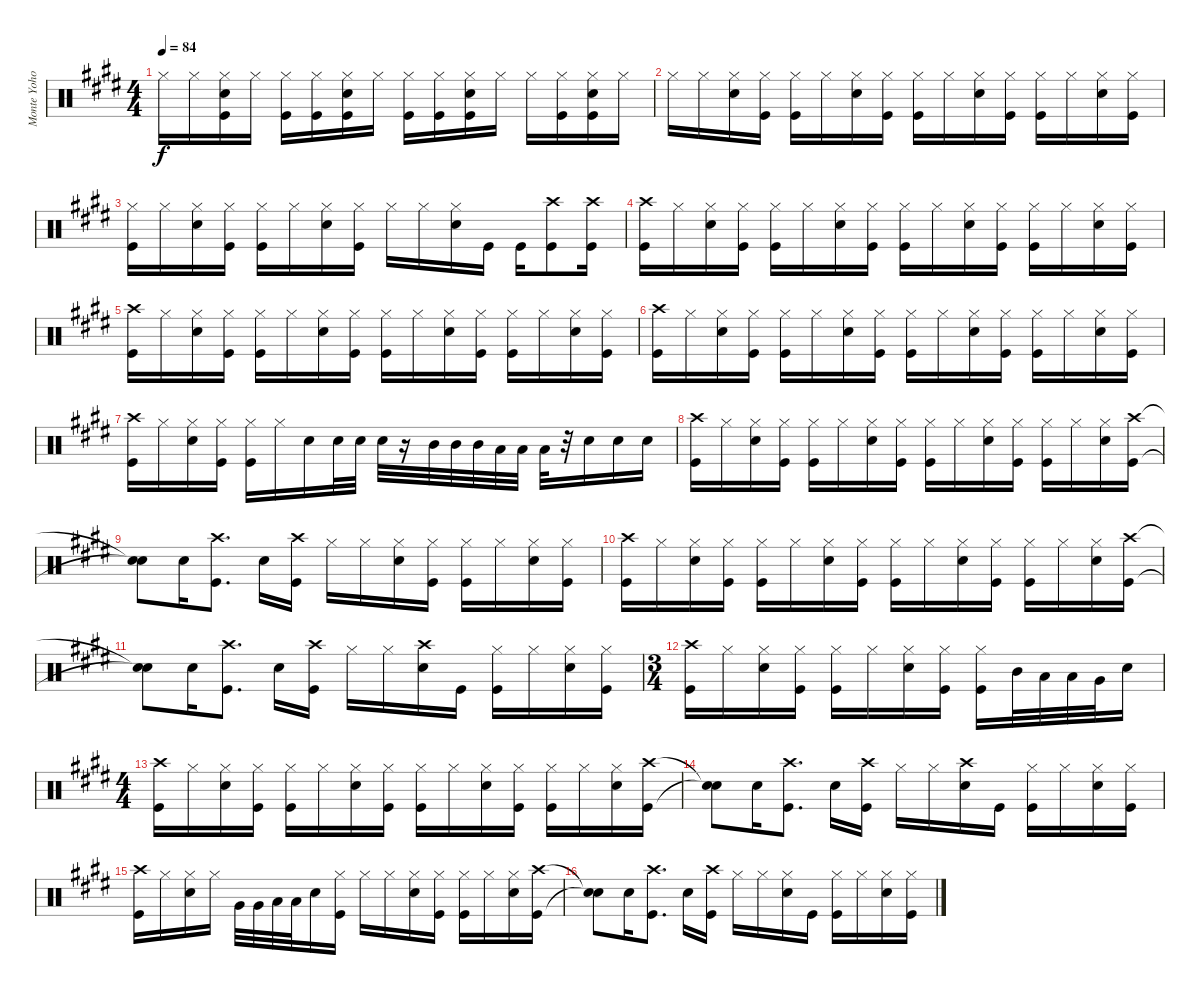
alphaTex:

\track ("Monte Yoho Drums" "Monte Yoho") {instrument percussion}
\staff {score}
\articulation defaults
\ts (4 4)
\tempo 84
\clef neutral
\ks e "Hi-Hat (closed)".16{dy f} "Hi-Hat (closed)".16
("Hi-Hat (closed)" "Snare (hit) 2" "Kick (hit)").16 "Hi-Hat (closed)".16 ("Hi-Hat (closed)" "Kick (hit)").16 ("Hi-Hat (closed)" "Kick (hit)").16 ("Hi-Hat (closed)" "Snare (hit) 2" "Kick (hit)").16 "Hi-Hat (closed)".16 ("Hi-Hat (closed)" "Kick (hit)").16 ("Hi-Hat (closed)" "Kick (hit)").16 ("Hi-Hat (closed)" "Snare (hit) 2" "Kick (hit)").16 "Hi-Hat (closed)".16 "Hi-Hat (closed)".16 ("Hi-Hat (closed)" "Kick (hit)").16 ("Hi-Hat (closed)" "Snare (hit) 2" "Kick (hit)").16 "Hi-Hat (closed)".16 |
"Hi-Hat (closed)".16 "Hi-Hat (closed)".16 ("Hi-Hat (closed)" "Snare (hit) 2").16 ("Hi-Hat (closed)" "Kick (hit)").16 ("Hi-Hat (closed)" "Kick (hit)").16 "Hi-Hat (closed)".16 ("Hi-Hat (closed)" "Snare (hit) 2").16 ("Hi-Hat (closed)" "Kick (hit)").16 ("Hi-Hat (closed)" "Kick (hit)").16 "Hi-Hat (closed)".16 ("Hi-Hat (closed)" "Snare (hit) 2").16 ("Hi-Hat (closed)" "Kick (hit)").16 ("Hi-Hat (closed)" "Kick (hit)").16 "Hi-Hat (closed)".16 ("Hi-Hat (closed)" "Snare (hit) 2").16 ("Hi-Hat (closed)" "Kick (hit)").16 |
("Hi-Hat (closed)" "Kick (hit)").16 "Hi-Hat (closed)".16 ("Hi-Hat (closed)" "Snare (hit) 2").16 ("Hi-Hat (closed)" "Kick (hit)").16 ("Hi-Hat (closed)" "Kick (hit)").16 "Hi-Hat (closed)".16 ("Hi-Hat (closed)" "Snare (hit) 2").16 ("Hi-Hat (closed)" "Kick (hit)").16 "Hi-Hat (closed)".16 "Hi-Hat (closed)".16 ("Hi-Hat (closed)" "Snare (hit) 2").16 "Kick (hit)".16 "Kick (hit)".16 ("Crash high (hit)" "Kick (hit)").8 ("Crash high (hit)" "Kick (hit)").16 |
("Crash high (hit)" "Kick (hit)").16 "Hi-Hat (closed)".16 ("Hi-Hat (closed)" "Snare (hit) 2").16 ("Hi-Hat (closed)" "Kick (hit)").16 ("Hi-Hat (closed)" "Kick (hit)").16 "Hi-Hat (closed)".16 ("Hi-Hat (closed)" "Snare (hit) 2").16 ("Hi-Hat (closed)" "Kick (hit)").16 ("Hi-Hat (closed)" "Kick (hit)").16 "Hi-Hat (closed)".16 ("Hi-Hat (closed)" "Snare (hit) 2").16 ("Hi-Hat (closed)" "Kick (hit)").16 ("Hi-Hat (closed)" "Kick (hit)").16 "Hi-Hat (closed)".16 ("Hi-Hat (closed)" "Snare (hit) 2").16 ("Hi-Hat (closed)" "Kick (hit)").16 |
("Crash high (hit)" "Kick (hit)").16 "Hi-Hat (closed)".16 ("Hi-Hat (closed)" "Snare (hit) 2").16 ("Hi-Hat (closed)" "Kick (hit)").16 ("Hi-Hat (closed)" "Kick (hit)").16 "Hi-Hat (closed)".16 ("Hi-Hat (closed)" "Snare (hit) 2").16 ("Hi-Hat (closed)" "Kick (hit)").16 ("Hi-Hat (closed)" "Kick (hit)").16 "Hi-Hat (closed)".16 ("Hi-Hat (closed)" "Snare (hit) 2").16 ("Hi-Hat (closed)" "Kick (hit)").16 ("Hi-Hat (closed)" "Kick (hit)").16 "Hi-Hat (closed)".16 ("Hi-Hat (closed)" "Snare (hit) 2").16 ("Hi-Hat (closed)" "Kick (hit)").16 |
("Crash high (hit)" "Kick (hit)").16 "Hi-Hat (closed)".16 ("Hi-Hat (closed)" "Snare (hit) 2").16 ("Hi-Hat (closed)" "Kick (hit)").16 ("Hi-Hat (closed)" "Kick (hit)").16 "Hi-Hat (closed)".16 ("Hi-Hat (closed)" "Snare (hit) 2").16 ("Hi-Hat (closed)" "Kick (hit)").16 ("Hi-Hat (closed)" "Kick (hit)").16 "Hi-Hat (closed)".16 ("Hi-Hat (closed)" "Snare (hit) 2").16 ("Hi-Hat (closed)" "Kick (hit)").16 ("Hi-Hat (closed)" "Kick (hit)").16 "Hi-Hat (closed)".16 ("Hi-Hat (closed)" "Snare (hit) 2").16 ("Hi-Hat (closed)" "Kick (hit)").16 |
("Crash high (hit)" "Kick (hit)").16 "Hi-Hat (closed)".16 ("Hi-Hat (closed)" "Snare (hit) 2").16 ("Hi-Hat (closed)" "Kick (hit)").16 ("Hi-Hat (closed)" "Kick (hit)").16 "Hi-Hat (closed)".16 "Snare (hit) 2".16 "Snare (hit) 2".32 "Snare (hit) 2".32 "Snare (hit) 2".32 r.16 "Mid Tom (hit)".32 "Mid Tom (hit)".32 "Mid Tom (hit)".32 "Low Tom (hit)".32 "Low Tom (hit)".32 "Low Tom (hit)".32 r.32 "Snare (hit) 2".16 "Snare (hit) 2".16 "Snare (hit) 2".16 |
("Crash high (hit)" "Kick (hit)").16 "Hi-Hat (closed)".16 ("Hi-Hat (closed)" "Snare (hit) 2").16 ("Hi-Hat (closed)" "Kick (hit)").16 ("Hi-Hat (closed)" "Kick (hit)").16 "Hi-Hat (closed)".16 ("Hi-Hat (closed)" "Snare (hit) 2").16 ("Hi-Hat (closed)" "Kick (hit)").16 ("Hi-Hat (closed)" "Kick (hit)").16 "Hi-Hat (closed)".16 ("Hi-Hat (closed)" "Snare (hit) 2").16 ("Hi-Hat (closed)" "Kick (hit)").16 ("Hi-Hat (closed)" "Kick (hit)").16 "Hi-Hat (closed)".16 ("Hi-Hat (closed)" "Snare (hit) 2").16 ("Crash high (hit)" "Kick (hit)").16 |
("Snare (hit)"{t} "Snare (hit)"{t}).8 "Snare (hit) 2".16 ("Crash high (hit)" "Kick (hit)").8{d} "Snare (hit) 2".16 ("Crash high (hit)" "Kick (hit)").16 "Hi-Hat (closed)".16 "Hi-Hat (closed)".16 ("Hi-Hat (closed)" "Snare (hit) 2").16 ("Hi-Hat (closed)" "Kick (hit)").16 ("Hi-Hat (closed)" "Kick (hit)").16 "Hi-Hat (closed)".16 ("Hi-Hat (closed)" "Snare (hit) 2").16 ("Hi-Hat (closed)" "Kick (hit)").16 |
("Crash high (hit)" "Kick (hit)").16 "Hi-Hat (closed)".16 ("Hi-Hat (closed)" "Snare (hit) 2").16 ("Hi-Hat (closed)" "Kick (hit)").16 ("Hi-Hat (closed)" "Kick (hit)").16 "Hi-Hat (closed)".16 ("Hi-Hat (closed)" "Snare (hit) 2").16 ("Hi-Hat (closed)" "Kick (hit)").16 ("Hi-Hat (closed)" "Kick (hit)").16 "Hi-Hat (closed)".16 ("Hi-Hat (closed)" "Snare (hit) 2").16 ("Hi-Hat (closed)" "Kick (hit)").16 ("Hi-Hat (closed)" "Kick (hit)").16 "Hi-Hat (closed)".16 ("Hi-Hat (closed)" "Snare (hit) 2").16 ("Crash high (hit)" "Kick (hit)").16 |
("Snare (hit)"{t} "Snare (hit)"{t}).8 "Snare (hit) 2".16 ("Crash high (hit)" "Kick (hit)").8{d} "Snare (hit) 2".16 ("Crash high (hit)" "Kick (hit)").16 "Hi-Hat (closed)".16 "Hi-Hat (closed)".16 ("Crash high (hit)" "Snare (hit) 2").16 "Kick (hit)".16 ("Hi-Hat (closed)" "Kick (hit)").16 "Hi-Hat (closed)".16 ("Hi-Hat (closed)" "Snare (hit) 2").16 ("Hi-Hat (closed)" "Kick (hit)").16 |
\ts (3 4)
("Crash high (hit)" "Kick (hit)").16 "Hi-Hat (closed)".16 ("Hi-Hat (closed)" "Snare (hit) 2").16 ("Hi-Hat (closed)" "Kick (hit)").16 ("Hi-Hat (closed)" "Kick (hit)").16 "Hi-Hat (closed)".16 ("Hi-Hat (closed)" "Snare (hit) 2").16 ("Hi-Hat (closed)" "Kick (hit)").16 ("Hi-Hat (closed)" "Kick (hit)").16 "Mid Tom (hit)".32 "Low Tom (hit)".32 "Low Tom (hit)".32 "Very Low Tom (hit)".32 "Snare (hit) 2".16 |
\ts (4 4)
("Crash high (hit)" "Kick (hit)").16 "Hi-Hat (closed)".16 ("Hi-Hat (closed)" "Snare (hit) 2").16 ("Hi-Hat (closed)" "Kick (hit)").16 ("Hi-Hat (closed)" "Kick (hit)").16 "Hi-Hat (closed)".16 ("Hi-Hat (closed)" "Snare (hit) 2").16 ("Hi-Hat (closed)" "Kick (hit)").16 ("Hi-Hat (closed)" "Kick (hit)").16 "Hi-Hat (closed)".16 ("Hi-Hat (closed)" "Snare (hit) 2").16 ("Hi-Hat (closed)" "Kick (hit)").16 ("Hi-Hat (closed)" "Kick (hit)").16 "Hi-Hat (closed)".16 ("Hi-Hat (closed)" "Snare (hit) 2").16 ("Crash high (hit)" "Kick (hit)").16 |
("Snare (hit)"{t} "Snare (hit)"{t}).8 "Snare (hit) 2".16 ("Crash high (hit)" "Kick (hit)").8{d} "Snare (hit) 2".16 ("Crash high (hit)" "Kick (hit)").16 "Hi-Hat (closed)".16 "Hi-Hat (closed)".16 ("Crash high (hit)" "Snare (hit) 2").16 "Kick (hit)".16 ("Hi-Hat (closed)" "Kick (hit)").16 "Hi-Hat (closed)".16 ("Hi-Hat (closed)" "Snare (hit) 2").16 ("Hi-Hat (closed)" "Kick (hit)").16 |
("Crash high (hit)" "Kick (hit)").16 "Hi-Hat (closed)".16 ("Hi-Hat (closed)" "Snare (hit) 2").16 "Hi-Hat (closed)".16 "Very Low Tom (hit)".32 "Very Low Tom (hit)".32 "Low Floor Tom (hit)".32 "Low Floor Tom (hit)".32 "Snare (hit) 2".16 ("Hi-Hat (closed)" "Kick (hit)").16 "Hi-Hat (closed)".16 "Hi-Hat (closed)".16 ("Hi-Hat (closed)" "Snare (hit) 2").16 ("Hi-Hat (closed)" "Kick (hit)").16 ("Hi-Hat (closed)" "Kick (hit)").16 "Hi-Hat (closed)".16 ("Hi-Hat (closed)" "Snare (hit) 2").16 ("Crash high (hit)" "Kick (hit)").16 |
("Snare (hit)"{t} "Snare (hit)"{t}).8 "Snare (hit) 2".16 ("Crash high (hit)" "Kick (hit)").8{d} "Snare (hit) 2".16 ("Crash high (hit)" "Kick (hit)").16 "Hi-Hat (closed)".16 "Hi-Hat (closed)".16 ("Hi-Hat (closed)" "Snare (hit) 2").16 "Kick (hit)".16 ("Hi-Hat (closed)" "Kick (hit)").16 "Hi-Hat (closed)".16 ("Hi-Hat (closed)" "Snare (hit) 2").16 ("Hi-Hat (closed)" "Kick (hit)").16
